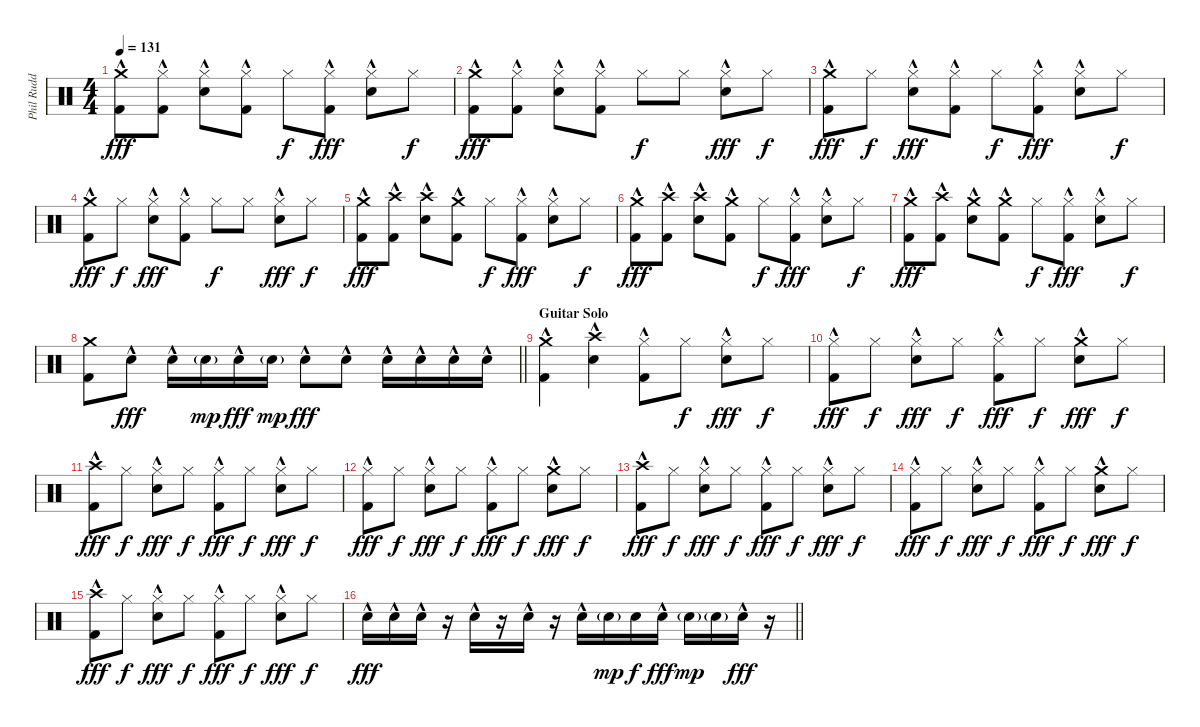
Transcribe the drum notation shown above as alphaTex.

\track ("Phil Rudd" "Phil Rudd") {instrument percussion}
\staff {score}
\articulation defaults
\ts (4 4)
\tempo 131
\clef neutral
\ks c
("Crash medium (hit)" "Kick (hit) 2"{hac}).8{dy fff} ("Hi-Hat (closed)" "Kick (hit) 2"{hac}).8 ("Hi-Hat (closed)" "Electric Snare (hit)"{hac}).8 ("Hi-Hat (closed)" "Kick (hit) 2"{hac}).8 "Hi-Hat (closed)".8{dy f} ("Hi-Hat (closed)" "Kick (hit) 2"{hac}).8{dy fff} ("Hi-Hat (closed)" "Electric Snare (hit)"{hac}).8 "Hi-Hat (closed)".8{dy f} |
("Crash medium (hit)" "Kick (hit) 2"{hac}).8{dy fff} ("Hi-Hat (closed)" "Kick (hit) 2"{hac}).8 ("Hi-Hat (closed)" "Electric Snare (hit)"{hac}).8 ("Hi-Hat (closed)" "Kick (hit) 2"{hac}).8 "Hi-Hat (closed)".8{dy f} "Hi-Hat (closed)".8 ("Hi-Hat (closed)" "Electric Snare (hit)"{hac}).8{dy fff} "Hi-Hat (closed)".8{dy f} |
("Crash medium (hit)" "Kick (hit) 2"{hac}).8{dy fff} "Hi-Hat (closed)".8{dy f} ("Hi-Hat (closed)" "Electric Snare (hit)"{hac}).8{dy fff} ("Hi-Hat (closed)" "Kick (hit) 2"{hac}).8 "Hi-Hat (closed)".8{dy f} ("Hi-Hat (closed)" "Kick (hit) 2"{hac}).8{dy fff} ("Hi-Hat (closed)" "Electric Snare (hit)"{hac}).8 "Hi-Hat (closed)".8{dy f} |
("Crash medium (hit)" "Kick (hit) 2"{hac}).8{dy fff} "Hi-Hat (closed)".8{dy f} ("Hi-Hat (closed)" "Electric Snare (hit)"{hac}).8{dy fff} ("Hi-Hat (closed)" "Kick (hit) 2"{hac}).8 "Hi-Hat (closed)".8{dy f} "Hi-Hat (closed)".8 ("Hi-Hat (closed)" "Electric Snare (hit)"{hac}).8{dy fff} "Hi-Hat (closed)".8{dy f} |
("Crash medium (hit)" "Kick (hit) 2"{hac}).8{dy fff} ("Crash high (hit)" "Kick (hit) 2"{hac}).8 ("Crash high (hit)" "Electric Snare (hit)"{hac}).8 ("Crash medium (hit)" "Kick (hit) 2"{hac}).8 "Hi-Hat (closed)".8{dy f} ("Hi-Hat (closed)" "Kick (hit) 2"{hac}).8{dy fff} ("Hi-Hat (closed)" "Electric Snare (hit)"{hac}).8 "Hi-Hat (closed)".8{dy f} |
("Crash medium (hit)" "Kick (hit) 2"{hac}).8{dy fff} ("Crash high (hit)" "Kick (hit) 2"{hac}).8 ("Crash high (hit)" "Electric Snare (hit)"{hac}).8 ("Crash medium (hit)" "Kick (hit) 2"{hac}).8 "Hi-Hat (closed)".8{dy f} ("Hi-Hat (closed)" "Kick (hit) 2"{hac}).8{dy fff} ("Hi-Hat (closed)" "Electric Snare (hit)"{hac}).8 "Hi-Hat (closed)".8{dy f} |
("Crash medium (hit)" "Kick (hit) 2"{hac}).8{dy fff} ("Crash high (hit)" "Kick (hit) 2"{hac}).8 ("Crash medium (hit)" "Electric Snare (hit)"{hac}).8 ("Crash medium (hit)" "Kick (hit) 2"{hac}).8 "Hi-Hat (closed)".8{dy f} ("Hi-Hat (closed)" "Kick (hit) 2"{hac}).8{dy fff} ("Hi-Hat (closed)" "Electric Snare (hit)"{hac}).8 "Hi-Hat (closed)".8{dy f} |
\barLineRight lightlight
("Crash medium (hit)" "Kick (hit) 2").8 "Electric Snare (hit)"{hac}.8{dy fff} "Electric Snare (hit)"{hac}.16 "Electric Snare (hit)"{g}.16{dy mp} "Electric Snare (hit)"{hac}.16{dy fff} "Electric Snare (hit)"{g}.16{dy mp} "Electric Snare (hit)"{hac}.8{dy fff} "Electric Snare (hit)"{hac}.8 "Electric Snare (hit)"{hac}.16 "Electric Snare (hit)"{hac}.16 "Electric Snare (hit)"{hac}.16 "Electric Snare (hit)"{hac}.16 |
\section ("" "Guitar Solo")
("Crash medium (hit)" "Kick (hit) 2"{hac}).4 ("Crash high (hit)" "Electric Snare (hit)"{hac}).4 ("Hi-Hat (closed)" "Kick (hit) 2"{hac}).8 "Hi-Hat (closed)".8{dy f} ("Hi-Hat (closed)" "Electric Snare (hit)"{hac}).8{dy fff} "Hi-Hat (closed)".8{dy f} |
("Hi-Hat (closed)" "Kick (hit) 2"{hac}).8{dy fff} "Hi-Hat (closed)".8{dy f} ("Hi-Hat (closed)" "Electric Snare (hit)"{hac}).8{dy fff} "Hi-Hat (closed)".8{dy f} ("Hi-Hat (closed)" "Kick (hit) 2"{hac}).8{dy fff} "Hi-Hat (closed)".8{dy f} ("Crash medium (hit)" "Electric Snare (hit)"{hac}).8{dy fff} "Hi-Hat (closed)".8{dy f} |
("Crash high (hit)" "Kick (hit) 2"{hac}).8{dy fff} "Hi-Hat (closed)".8{dy f} ("Hi-Hat (closed)" "Electric Snare (hit)"{hac}).8{dy fff} "Hi-Hat (closed)".8{dy f} ("Hi-Hat (closed)" "Kick (hit) 2"{hac}).8{dy fff} "Hi-Hat (closed)".8{dy f} ("Hi-Hat (closed)" "Electric Snare (hit)"{hac}).8{dy fff} "Hi-Hat (closed)".8{dy f} |
("Hi-Hat (closed)" "Kick (hit) 2"{hac}).8{dy fff} "Hi-Hat (closed)".8{dy f} ("Hi-Hat (closed)" "Electric Snare (hit)"{hac}).8{dy fff} "Hi-Hat (closed)".8{dy f} ("Hi-Hat (closed)" "Kick (hit) 2"{hac}).8{dy fff} "Hi-Hat (closed)".8{dy f} ("Crash medium (hit)" "Electric Snare (hit)"{hac}).8{dy fff} "Hi-Hat (closed)".8{dy f} |
("Crash high (hit)" "Kick (hit) 2"{hac}).8{dy fff} "Hi-Hat (closed)".8{dy f} ("Hi-Hat (closed)" "Electric Snare (hit)"{hac}).8{dy fff} "Hi-Hat (closed)".8{dy f} ("Hi-Hat (closed)" "Kick (hit) 2"{hac}).8{dy fff} "Hi-Hat (closed)".8{dy f} ("Hi-Hat (closed)" "Electric Snare (hit)"{hac}).8{dy fff} "Hi-Hat (closed)".8{dy f} |
("Hi-Hat (closed)" "Kick (hit) 2"{hac}).8{dy fff} "Hi-Hat (closed)".8{dy f} ("Hi-Hat (closed)" "Electric Snare (hit)"{hac}).8{dy fff} "Hi-Hat (closed)".8{dy f} ("Hi-Hat (closed)" "Kick (hit) 2"{hac}).8{dy fff} "Hi-Hat (closed)".8{dy f} ("Crash medium (hit)" "Electric Snare (hit)"{hac}).8{dy fff} "Hi-Hat (closed)".8{dy f} |
("Crash high (hit)" "Kick (hit) 2"{hac}).8{dy fff} "Hi-Hat (closed)".8{dy f} ("Hi-Hat (closed)" "Electric Snare (hit)"{hac}).8{dy fff} "Hi-Hat (closed)".8{dy f} ("Hi-Hat (closed)" "Kick (hit) 2"{hac}).8{dy fff} "Hi-Hat (closed)".8{dy f} ("Hi-Hat (closed)" "Electric Snare (hit)"{hac}).8{dy fff} "Hi-Hat (closed)".8{dy f} |
\barLineRight lightlight "Electric Snare (hit)"{hac}.16{dy fff} "Electric Snare (hit)"{hac}.16 "Electric Snare (hit)"{hac}.16
r.16 "Electric Snare (hit)"{hac}.16 r.16 "Electric Snare (hit)"{hac}.16 r.16 "Electric Snare (hit)"{hac}.16 "Electric Snare (hit)"{g}.16{dy mp} "Electric Snare (hit)".16{dy f} "Electric Snare (hit)"{hac}.16{dy fff} "Electric Snare (hit)"{g}.16{dy mp} "Electric Snare (hit)"{g}.16 "Electric Snare (hit)"{hac}.16{dy fff} r.16
